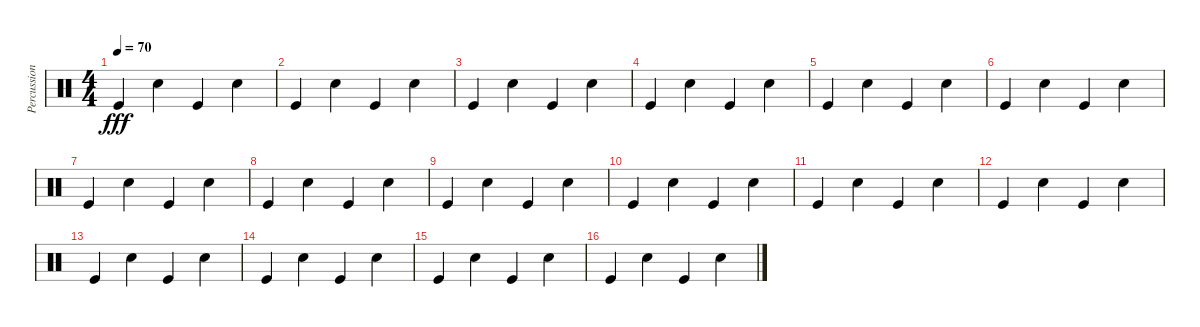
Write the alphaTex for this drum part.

\track ("Percussions" "Percussion") {instrument percussion}
\staff {score}
\articulation defaults
\ts (4 4)
\tempo 70
\clef neutral
\ks c "Kick (hit)".4{dy fff} "Electric Snare (hit)".4 "Kick (hit)".4 "Electric Snare (hit)".4
|
"Kick (hit)".4 "Electric Snare (hit)".4 "Kick (hit)".4 "Electric Snare (hit)".4 |
"Kick (hit)".4 "Electric Snare (hit)".4 "Kick (hit)".4 "Electric Snare (hit)".4 |
"Kick (hit)".4 "Electric Snare (hit)".4 "Kick (hit)".4 "Electric Snare (hit)".4 |
"Kick (hit)".4 "Electric Snare (hit)".4 "Kick (hit)".4 "Electric Snare (hit)".4 |
"Kick (hit)".4 "Electric Snare (hit)".4 "Kick (hit)".4 "Electric Snare (hit)".4 |
"Kick (hit)".4 "Electric Snare (hit)".4 "Kick (hit)".4 "Electric Snare (hit)".4 |
"Kick (hit)".4 "Electric Snare (hit)".4 "Kick (hit)".4 "Electric Snare (hit)".4 |
"Kick (hit)".4 "Electric Snare (hit)".4 "Kick (hit)".4 "Electric Snare (hit)".4 |
"Kick (hit)".4 "Electric Snare (hit)".4 "Kick (hit)".4 "Electric Snare (hit)".4 |
"Kick (hit)".4 "Electric Snare (hit)".4 "Kick (hit)".4 "Electric Snare (hit)".4 |
"Kick (hit)".4 "Electric Snare (hit)".4 "Kick (hit)".4 "Electric Snare (hit)".4 |
"Kick (hit)".4 "Electric Snare (hit)".4 "Kick (hit)".4 "Electric Snare (hit)".4 |
"Kick (hit)".4 "Electric Snare (hit)".4 "Kick (hit)".4 "Electric Snare (hit)".4 |
"Kick (hit)".4 "Electric Snare (hit)".4 "Kick (hit)".4 "Electric Snare (hit)".4 |
"Kick (hit)".4 "Electric Snare (hit)".4 "Kick (hit)".4 "Electric Snare (hit)".4
